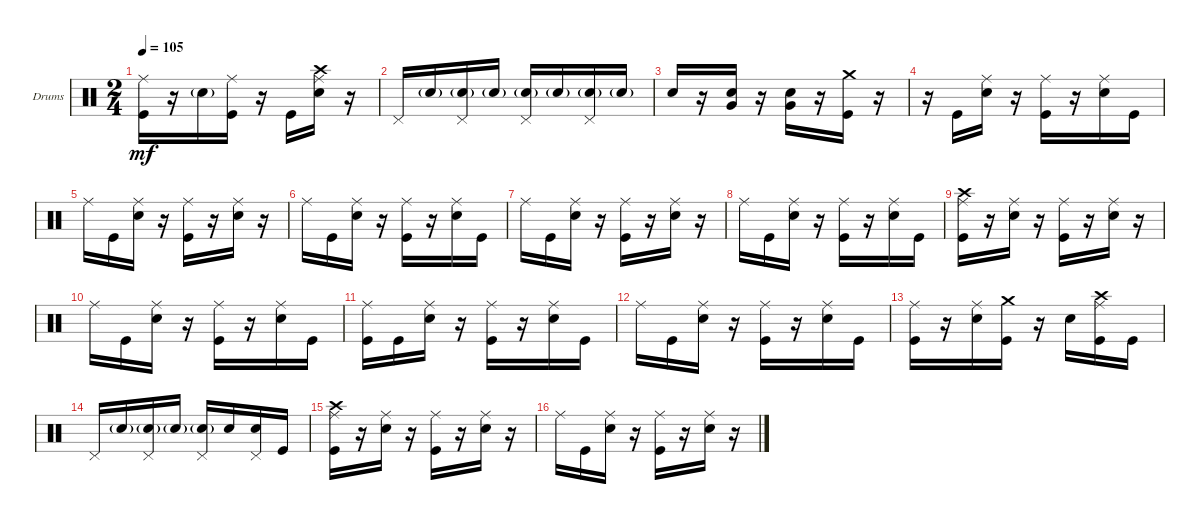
\defaultSystemsLayout 4
\bracketExtendMode groupsimilarinstruments
\firstSystemTrackNameOrientation horizontal
\otherSystemsTrackNameOrientation horizontal
\track ("Godd" "Drums") {instrument percussion}
\staff {score}
\articulation defaults
\ts (2 4)
\tempo 105
\clef neutral
\ks c
("Ride (middle)" "Kick (hit)").16{dy mf} r.16 "Snare (hit) 2"{g}.16 ("Kick (hit)" "Ride (middle)").16 r.16 "Kick (hit)".16 ("Snare (hit) 2" "Ride (middle)" "Crash high (hit)").16 r.16 |
"Pedal Hi-Hat (hit)".16 "Snare (hit) 2"{g}.16 ("Snare (hit) 2"{g} "Pedal Hi-Hat (hit)").16 "Snare (hit) 2"{g}.16 ("Pedal Hi-Hat (hit)" "Snare (hit) 2"{g}).16 "Snare (hit) 2"{g}.16 ("Snare (hit) 2"{g} "Pedal Hi-Hat (hit)").16 "Snare (hit) 2"{g}.16 |
"Snare (hit) 2".16 r.16 ("Snare (hit) 2" "Very Low Tom (hit)").16 r.16 ("Snare (hit) 2" "Very Low Tom (hit)").16 r.16 ("Kick (hit)" "Crash medium (hit)").16 r.16 |
r.16 "Kick (hit)".16 ("Ride (middle)" "Snare (hit) 2").16 r.16 ("Ride (middle)" "Kick (hit)").16 r.16 ("Ride (middle)" "Snare (hit) 2").16 "Kick (hit)".16 |
"Ride (middle)".16 "Kick (hit)".16 ("Ride (middle)" "Snare (hit) 2").16 r.16 ("Ride (middle)" "Kick (hit)").16 r.16 ("Ride (middle)" "Snare (hit) 2").16 r.16 |
"Ride (middle)".16 "Kick (hit)".16 ("Ride (middle)" "Snare (hit) 2").16 r.16 ("Ride (middle)" "Kick (hit)").16 r.16 ("Ride (middle)" "Snare (hit) 2").16 "Kick (hit)".16 |
"Ride (middle)".16 "Kick (hit)".16 ("Ride (middle)" "Snare (hit) 2").16 r.16 ("Ride (middle)" "Kick (hit)").16 r.16 ("Ride (middle)" "Snare (hit) 2").16 r.16 |
"Ride (middle)".16 "Kick (hit)".16 ("Ride (middle)" "Snare (hit) 2").16 r.16 ("Ride (middle)" "Kick (hit)").16 r.16 ("Ride (middle)" "Snare (hit) 2").16 "Kick (hit)".16 |
("Ride (middle)" "Crash high (hit)" "Kick (hit)").16 r.16 ("Ride (middle)" "Snare (hit) 2").16 r.16 ("Ride (middle)" "Kick (hit)").16 r.16 ("Ride (middle)" "Snare (hit) 2").16 r.16 |
"Ride (middle)".16 "Kick (hit)".16 ("Ride (middle)" "Snare (hit) 2").16 r.16 ("Ride (middle)" "Kick (hit)").16 r.16 ("Ride (middle)" "Snare (hit) 2").16 "Kick (hit)".16 |
("Ride (middle)" "Kick (hit)").16 "Kick (hit)".16 ("Ride (middle)" "Snare (hit) 2").16 r.16 ("Ride (middle)" "Kick (hit)").16 r.16 ("Ride (middle)" "Snare (hit) 2").16 "Kick (hit)".16 |
"Ride (middle)".16 "Kick (hit)".16 ("Ride (middle)" "Snare (hit) 2").16 r.16 ("Ride (middle)" "Kick (hit)").16 r.16 ("Ride (middle)" "Snare (hit) 2").16 "Kick (hit)".16 |
("Ride (middle)" "Kick (hit)").16 r.16 ("Ride (middle)" "Snare (hit) 2").16 ("Kick (hit)" "Crash medium (hit)").16 r.16 "Snare (hit) 2".16 ("Ride (middle)" "Crash high (hit)" "Kick (hit)").16 "Kick (hit)".16 |
"Pedal Hi-Hat (hit)".16 "Snare (hit) 2"{g}.16 ("Pedal Hi-Hat (hit)" "Snare (hit) 2"{g}).16 "Snare (hit) 2"{g}.16 ("Pedal Hi-Hat (hit)" "Snare (hit) 2"{g}).16 "Snare (hit) 2".16 ("Pedal Hi-Hat (hit)" "Snare (hit) 2").16 "Kick (hit)".16 |
("Ride (middle)" "Crash high (hit)" "Kick (hit)").16 r.16 ("Ride (middle)" "Snare (hit) 2").16 r.16 ("Ride (middle)" "Kick (hit)").16 r.16 ("Ride (middle)" "Snare (hit) 2").16 r.16 |
"Ride (middle)".16 "Kick (hit)".16 ("Ride (middle)" "Snare (hit) 2").16 r.16 ("Ride (middle)" "Kick (hit)").16 r.16 ("Ride (middle)" "Snare (hit) 2").16 r.16
